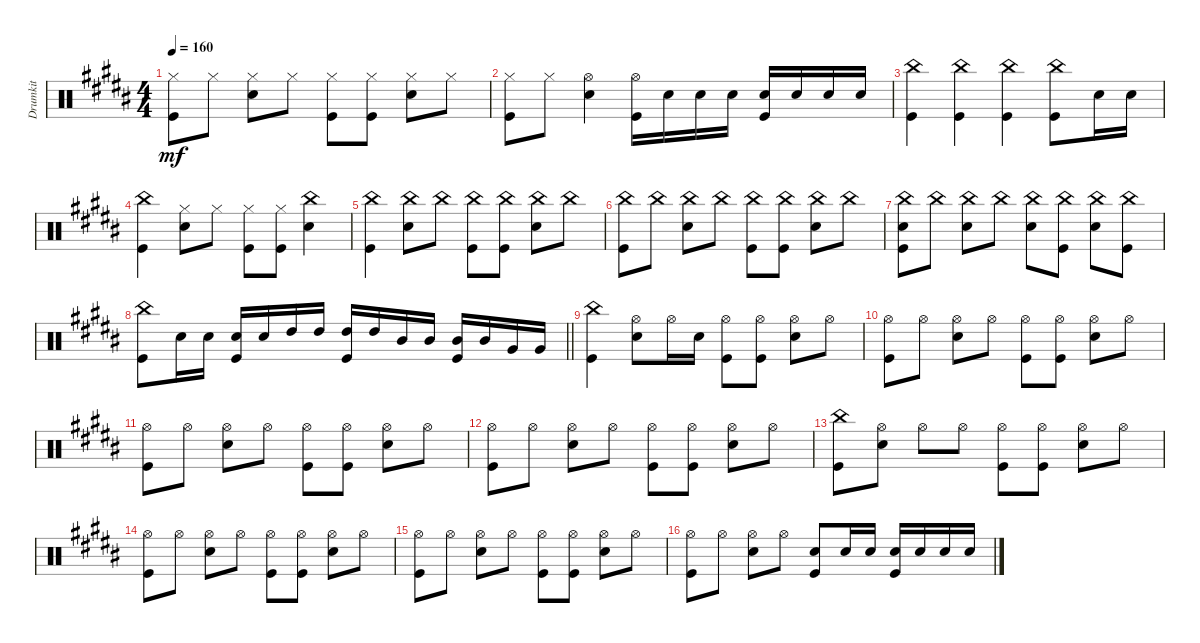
\track ("Drumkit" "Drumkit") {instrument percussion}
\staff {score}
\articulation defaults
\ts (4 4)
\tempo 160
\clef neutral
\ks b
("Kick (hit)" "Hi-Hat (closed)").8{dy mf} "Hi-Hat (closed)".8 ("Hi-Hat (closed)" "Snare (hit) 2").8 "Hi-Hat (closed)".8 ("Hi-Hat (closed)" "Kick (hit)").8 ("Hi-Hat (closed)" "Kick (hit)").8 ("Hi-Hat (closed)" "Snare (hit) 2").8 "Hi-Hat (closed)".8 |
("Hi-Hat (closed)" "Kick (hit)").8 "Hi-Hat (closed)".8 ("Snare (hit) 2" "Hi-Hat (open)").4 ("Hi-Hat (open)" "Kick (hit)").16 "Snare (hit) 2".16 "Snare (hit) 2".16 "Snare (hit) 2".16 ("Snare (hit) 2" "Kick (hit)").16 "Snare (hit) 2".16 "Snare (hit) 2".16 "Snare (hit) 2".16 |
("China (hit)" "Kick (hit)").4 ("Kick (hit)" "China (hit)").4 ("China (hit)" "Kick (hit)").4 ("Kick (hit)" "China (hit)").8 "Snare (hit) 2".16 "Snare (hit) 2".16 |
("China (hit)" "Kick (hit)").4 ("Snare (hit) 2" "Hi-Hat (closed)").8 "Hi-Hat (closed)".8 ("Hi-Hat (closed)" "Kick (hit)").8 ("Hi-Hat (closed)" "Kick (hit)").8 ("Snare (hit) 2" "China (hit)").4 |
("China (hit)" "Kick (hit)").4 ("Snare (hit) 2" "China (hit)").8 "China (hit)".8 ("China (hit)" "Kick (hit)").8 ("Kick (hit)" "China (hit)").8 ("China (hit)" "Snare (hit) 2").8 "China (hit)".8 |
("China (hit)" "Kick (hit)").8 "China (hit)".8 ("China (hit)" "Snare (hit) 2").8 "China (hit)".8 ("China (hit)" "Kick (hit)").8 ("Kick (hit)" "China (hit)").8 ("China (hit)" "Snare (hit) 2").8 "China (hit)".8 |
("China (hit)" "Snare (hit) 2" "Kick (hit)").8 "China (hit)".8 ("China (hit)" "Snare (hit) 2").8 "China (hit)".8 ("China (hit)" "Snare (hit) 2").8 ("Kick (hit)" "China (hit)").8 ("China (hit)" "Snare (hit) 2").8 ("Kick (hit)" "China (hit)").8 |
\barLineRight lightlight
("China (hit)" "Kick (hit)").8 "Snare (hit) 2".16 "Snare (hit) 2".16 ("Snare (hit) 2" "Kick (hit)").16 "Snare (hit) 2".16 "High Tom (hit)".16 "High Tom (hit)".16 ("High Tom (hit)" "Kick (hit)").16 "High Tom (hit)".16 "Mid Tom (hit)".16 "Mid Tom (hit)".16 ("Mid Tom (hit)" "Kick (hit)").16 "Mid Tom (hit)".16 "Very Low Tom (hit)".16 "Very Low Tom (hit)".16 |
\section ("" "")
("Kick (hit)" "China (hit)").4 ("Hi-Hat (open)" "Snare (hit) 2").8 "Hi-Hat (open)".16 "Snare (hit) 2".16 ("Kick (hit)" "Hi-Hat (open)").8 ("Hi-Hat (open)" "Kick (hit)").8 ("Snare (hit) 2" "Hi-Hat (open)").8 "Hi-Hat (open)".8 |
("Kick (hit)" "Hi-Hat (open)").8 "Hi-Hat (open)".8 ("Hi-Hat (open)" "Snare (hit) 2").8 "Hi-Hat (open)".8 ("Hi-Hat (open)" "Kick (hit)").8 ("Hi-Hat (open)" "Kick (hit)").8 ("Hi-Hat (open)" "Snare (hit) 2").8 "Hi-Hat (open)".8 |
("Kick (hit)" "Hi-Hat (open)").8 "Hi-Hat (open)".8 ("Hi-Hat (open)" "Snare (hit) 2").8 "Hi-Hat (open)".8 ("Hi-Hat (open)" "Kick (hit)").8 ("Hi-Hat (open)" "Kick (hit)").8 ("Hi-Hat (open)" "Snare (hit) 2").8 "Hi-Hat (open)".8 |
("Kick (hit)" "Hi-Hat (open)").8 "Hi-Hat (open)".8 ("Hi-Hat (open)" "Snare (hit) 2").8 "Hi-Hat (open)".8 ("Hi-Hat (open)" "Kick (hit)").8 ("Hi-Hat (open)" "Kick (hit)").8 ("Hi-Hat (open)" "Snare (hit) 2").8 "Hi-Hat (open)".8 |
("China (hit)" "Kick (hit)").8 ("Snare (hit) 2" "Hi-Hat (open)").8 "Hi-Hat (open)".8 "Hi-Hat (open)".8 ("Hi-Hat (open)" "Kick (hit)").8 ("Hi-Hat (open)" "Kick (hit)").8 ("Hi-Hat (open)" "Snare (hit) 2").8 "Hi-Hat (open)".8 |
("Kick (hit)" "Hi-Hat (open)").8 "Hi-Hat (open)".8 ("Hi-Hat (open)" "Snare (hit) 2").8 "Hi-Hat (open)".8 ("Hi-Hat (open)" "Kick (hit)").8 ("Kick (hit)" "Hi-Hat (open)").8 ("Hi-Hat (open)" "Snare (hit) 2").8 "Hi-Hat (open)".8 |
("Hi-Hat (open)" "Kick (hit)").8 "Hi-Hat (open)".8 ("Hi-Hat (open)" "Snare (hit) 2").8 "Hi-Hat (open)".8 ("Hi-Hat (open)" "Kick (hit)").8 ("Kick (hit)" "Hi-Hat (open)").8 ("Hi-Hat (open)" "Snare (hit) 2").8 "Hi-Hat (open)".8 |
("Hi-Hat (open)" "Kick (hit)").8 "Hi-Hat (open)".8 ("Hi-Hat (open)" "Snare (hit) 2").8 "Hi-Hat (open)".8 ("Snare (hit) 2" "Kick (hit)").8 "Snare (hit) 2".16 "Snare (hit) 2".16 ("Snare (hit) 2" "Kick (hit)").16 "Snare (hit) 2".16 "Snare (hit) 2".16 "Snare (hit) 2".16
